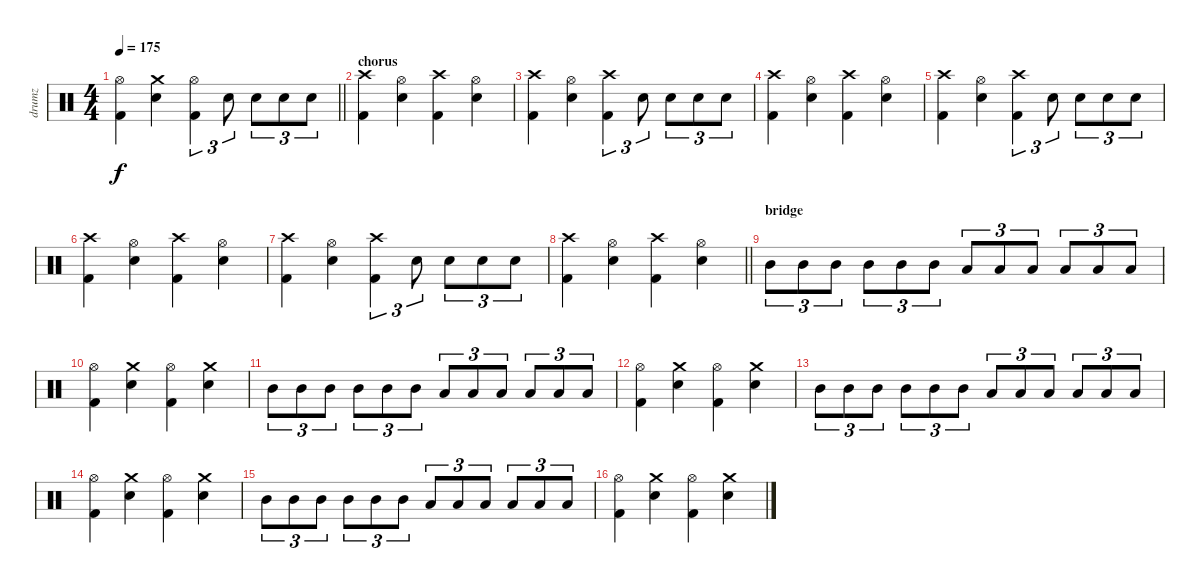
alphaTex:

\track ("drumz" "drumz") {instrument percussion}
\staff {score}
\articulation defaults
\ts (4 4)
\tempo 175
\clef neutral
\barLineRight lightlight
\ks c
("Hi-Hat (open)" "Kick (hit) 2").4{dy f} ("Crash medium (hit)" "Electric Snare (hit)").4 ("Hi-Hat (open)" "Kick (hit) 2").4{tu (3 2)} "Electric Snare (hit)".8{tu (3 2)} "Electric Snare (hit)".8{tu (3 2)} "Electric Snare (hit)".8{tu (3 2)} "Electric Snare (hit)".8{tu (3 2)} |
\section ("" "chorus")
("Crash high (hit)" "Kick (hit) 2").4 ("Hi-Hat (open)" "Electric Snare (hit)").4 ("Crash high (hit)" "Kick (hit) 2").4 ("Hi-Hat (open)" "Electric Snare (hit)").4 |
("Crash high (hit)" "Kick (hit) 2").4 ("Hi-Hat (open)" "Electric Snare (hit)").4 ("Crash high (hit)" "Kick (hit) 2").4{tu (3 2)} "Electric Snare (hit)".8{tu (3 2)} "Electric Snare (hit)".8{tu (3 2)} "Electric Snare (hit)".8{tu (3 2)} "Electric Snare (hit)".8{tu (3 2)} |
("Crash high (hit)" "Kick (hit) 2").4 ("Hi-Hat (open)" "Electric Snare (hit)").4 ("Crash high (hit)" "Kick (hit) 2").4 ("Hi-Hat (open)" "Electric Snare (hit)").4 |
("Crash high (hit)" "Kick (hit) 2").4 ("Hi-Hat (open)" "Electric Snare (hit)").4 ("Crash high (hit)" "Kick (hit) 2").4{tu (3 2)} "Electric Snare (hit)".8{tu (3 2)} "Electric Snare (hit)".8{tu (3 2)} "Electric Snare (hit)".8{tu (3 2)} "Electric Snare (hit)".8{tu (3 2)} |
("Crash high (hit)" "Kick (hit) 2").4 ("Hi-Hat (open)" "Electric Snare (hit)").4 ("Crash high (hit)" "Kick (hit) 2").4 ("Hi-Hat (open)" "Electric Snare (hit)").4 |
("Crash high (hit)" "Kick (hit) 2").4 ("Hi-Hat (open)" "Electric Snare (hit)").4 ("Crash high (hit)" "Kick (hit) 2").4{tu (3 2)} "Electric Snare (hit)".8{tu (3 2)} "Electric Snare (hit)".8{tu (3 2)} "Electric Snare (hit)".8{tu (3 2)} "Electric Snare (hit)".8{tu (3 2)} |
\barLineRight lightlight
("Crash high (hit)" "Kick (hit) 2").4 ("Hi-Hat (open)" "Electric Snare (hit)").4 ("Crash high (hit)" "Kick (hit) 2").4 ("Hi-Hat (open)" "Electric Snare (hit)").4 |
\section ("" "bridge")
"Mid Tom (hit)".8{tu (3 2)} "Mid Tom (hit)".8{tu (3 2)} "Mid Tom (hit)".8{tu (3 2)} "Mid Tom (hit)".8{tu (3 2)} "Mid Tom (hit)".8{tu (3 2)} "Mid Tom (hit)".8{tu (3 2)} "Low Tom (hit)".8{tu (3 2)} "Low Tom (hit)".8{tu (3 2)} "Low Tom (hit)".8{tu (3 2)} "Low Tom (hit)".8{tu (3 2)} "Low Tom (hit)".8{tu (3 2)} "Low Tom (hit)".8{tu (3 2)} |
("Hi-Hat (open)" "Kick (hit) 2").4 ("Crash medium (hit)" "Electric Snare (hit)").4 ("Hi-Hat (open)" "Kick (hit) 2").4 ("Crash medium (hit)" "Electric Snare (hit)").4 |
"Mid Tom (hit)".8{tu (3 2)} "Mid Tom (hit)".8{tu (3 2)} "Mid Tom (hit)".8{tu (3 2)} "Mid Tom (hit)".8{tu (3 2)} "Mid Tom (hit)".8{tu (3 2)} "Mid Tom (hit)".8{tu (3 2)} "Low Tom (hit)".8{tu (3 2)} "Low Tom (hit)".8{tu (3 2)} "Low Tom (hit)".8{tu (3 2)} "Low Tom (hit)".8{tu (3 2)} "Low Tom (hit)".8{tu (3 2)} "Low Tom (hit)".8{tu (3 2)} |
("Hi-Hat (open)" "Kick (hit) 2").4 ("Crash medium (hit)" "Electric Snare (hit)").4 ("Hi-Hat (open)" "Kick (hit) 2").4 ("Crash medium (hit)" "Electric Snare (hit)").4 |
"Mid Tom (hit)".8{tu (3 2)} "Mid Tom (hit)".8{tu (3 2)} "Mid Tom (hit)".8{tu (3 2)} "Mid Tom (hit)".8{tu (3 2)} "Mid Tom (hit)".8{tu (3 2)} "Mid Tom (hit)".8{tu (3 2)} "Low Tom (hit)".8{tu (3 2)} "Low Tom (hit)".8{tu (3 2)} "Low Tom (hit)".8{tu (3 2)} "Low Tom (hit)".8{tu (3 2)} "Low Tom (hit)".8{tu (3 2)} "Low Tom (hit)".8{tu (3 2)} |
("Hi-Hat (open)" "Kick (hit) 2").4 ("Crash medium (hit)" "Electric Snare (hit)").4 ("Hi-Hat (open)" "Kick (hit) 2").4 ("Crash medium (hit)" "Electric Snare (hit)").4 |
"Mid Tom (hit)".8{tu (3 2)} "Mid Tom (hit)".8{tu (3 2)} "Mid Tom (hit)".8{tu (3 2)} "Mid Tom (hit)".8{tu (3 2)} "Mid Tom (hit)".8{tu (3 2)} "Mid Tom (hit)".8{tu (3 2)} "Low Tom (hit)".8{tu (3 2)} "Low Tom (hit)".8{tu (3 2)} "Low Tom (hit)".8{tu (3 2)} "Low Tom (hit)".8{tu (3 2)} "Low Tom (hit)".8{tu (3 2)} "Low Tom (hit)".8{tu (3 2)} |
("Hi-Hat (open)" "Kick (hit) 2").4 ("Crash medium (hit)" "Electric Snare (hit)").4 ("Hi-Hat (open)" "Kick (hit) 2").4 ("Crash medium (hit)" "Electric Snare (hit)").4
